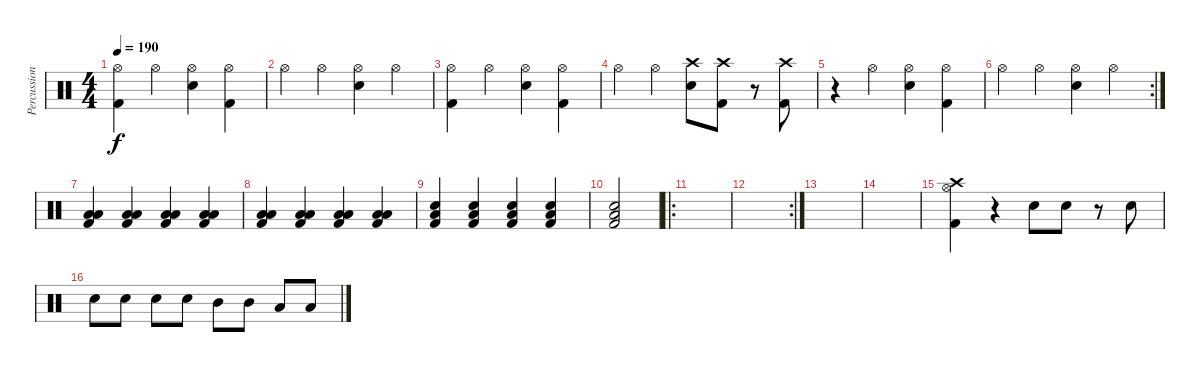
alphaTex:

\track ("Percussion" "Percussion") {instrument percussion}
\staff {score}
\articulation defaults
\ts (4 4)
\tempo 190
\clef neutral
\ks c
("Hi-Hat (open)" "Kick (hit) 2").4{dy f} "Hi-Hat (open)".4 ("Hi-Hat (open)" "Electric Snare (hit)").4 ("Hi-Hat (open)" "Kick (hit) 2").4 |
"Hi-Hat (open)".4 "Hi-Hat (open)".4 ("Hi-Hat (open)" "Electric Snare (hit)").4 "Hi-Hat (open)".4 |
("Hi-Hat (open)" "Kick (hit) 2").4 "Hi-Hat (open)".4 ("Hi-Hat (open)" "Electric Snare (hit)").4 ("Hi-Hat (open)" "Kick (hit) 2").4 |
"Hi-Hat (open)".4 "Hi-Hat (open)".4 ("Crash high (hit)" "Electric Snare (hit)").8 ("Crash high (hit)" "Kick (hit) 2").8 r.8 ("Crash high (hit)" "Kick (hit) 2").8 |
r.4 "Hi-Hat (open)".4 ("Hi-Hat (open)" "Electric Snare (hit)").4 ("Hi-Hat (open)" "Kick (hit) 2").4 |
\rc 2 "Hi-Hat (open)".4 "Hi-Hat (open)".4
("Hi-Hat (open)" "Electric Snare (hit)").4 "Hi-Hat (open)".4 |
("Low Tom (hit)" "Low Floor Tom (hit)" "Kick (hit) 2").4 ("Low Tom (hit)" "Low Floor Tom (hit)" "Kick (hit) 2").4 ("Low Tom (hit)" "Low Floor Tom (hit)" "Kick (hit) 2").4 ("Low Tom (hit)" "Low Floor Tom (hit)" "Kick (hit) 2").4 |
("Low Tom (hit)" "Low Floor Tom (hit)" "Kick (hit) 2").4 ("Low Tom (hit)" "Low Floor Tom (hit)" "Kick (hit) 2").4 ("Low Tom (hit)" "Low Floor Tom (hit)" "Kick (hit) 2").4 ("Low Tom (hit)" "Low Floor Tom (hit)" "Kick (hit) 2").4 |
("Electric Snare (hit)" "Low Floor Tom (hit)" "Kick (hit) 2").4 ("Electric Snare (hit)" "Low Floor Tom (hit)" "Kick (hit) 2").4 ("Electric Snare (hit)" "Low Floor Tom (hit)" "Kick (hit) 2").4 ("Electric Snare (hit)" "Low Floor Tom (hit)" "Kick (hit) 2").4 |
("Electric Snare (hit)" "Low Floor Tom (hit)" "Kick (hit) 2").2 |
\ro
|
\rc 2
|
|
|
("Crash high (hit)" "Hi-Hat (open)" "Kick (hit) 2").4 r.4 "Electric Snare (hit)".8 "Electric Snare (hit)".8 r.8 "Electric Snare (hit)".8 |
"Electric Snare (hit)".8 "Electric Snare (hit)".8 "Electric Snare (hit)".8 "Electric Snare (hit)".8 "Mid Tom (hit)".8 "Mid Tom (hit)".8 "Low Tom (hit)".8 "Low Floor Tom (hit)".8
